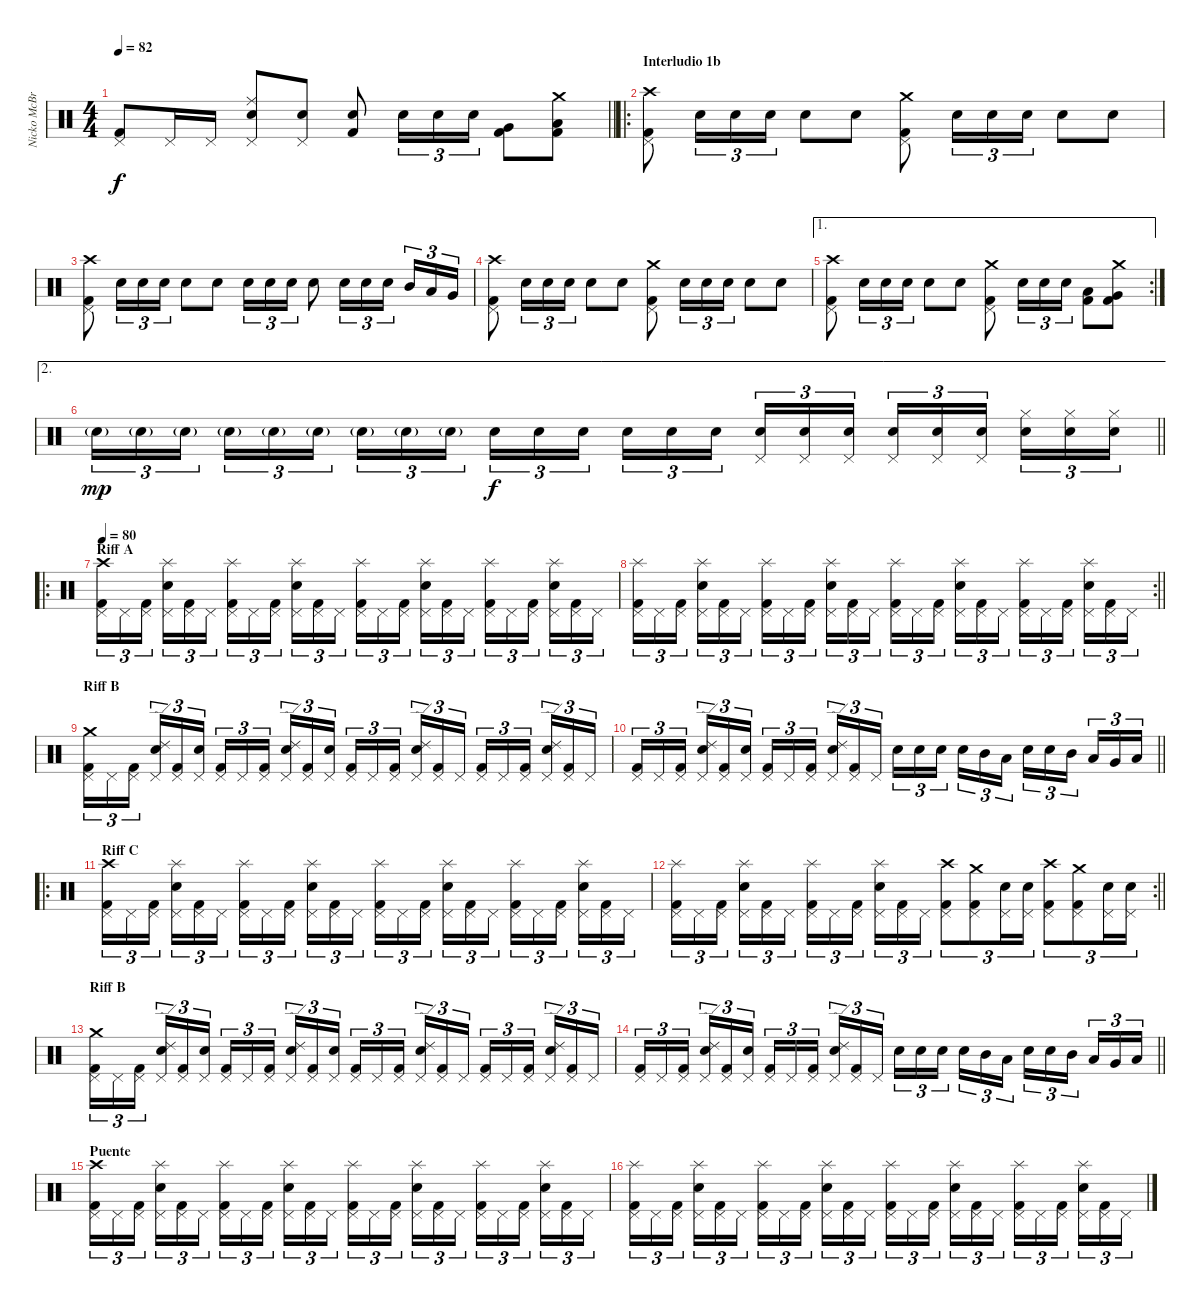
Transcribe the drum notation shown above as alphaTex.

\track ("Nicko McBrain" "Nicko McBr") {instrument percussion}
\staff {score}
\articulation defaults
\ts (4 4)
\tempo 82
\clef neutral
\barLineRight lightlight
\ks c
("Kick (hit) 2" "Pedal Hi-Hat (hit)").8{dy f} "Pedal Hi-Hat (hit)".16 "Pedal Hi-Hat (hit)".16 ("Snare (hit) 2" "Pedal Hi-Hat (hit)" "Ride (middle)").8 ("Snare (hit) 2" "Pedal Hi-Hat (hit)").8 ("Kick (hit) 2" "Snare (hit) 2").8 "Snare (hit) 2".16{tu (3 2)} "Snare (hit) 2".16{tu (3 2)} "Snare (hit) 2".16{tu (3 2)} ("Very Low Tom (hit)" "Kick (hit) 2").8 ("Low Floor Tom (hit)" "Kick (hit) 2" "Crash medium (hit)").8 |
\ro
\section ("" "Interludio 1b")
("Kick (hit) 2" "Pedal Hi-Hat (hit)" "Crash high (hit)").8 "Snare (hit) 2".16{tu (3 2)} "Snare (hit) 2".16{tu (3 2)} "Snare (hit) 2".16{tu (3 2)} "Snare (hit) 2".8 "Snare (hit) 2".8 ("Kick (hit) 2" "Pedal Hi-Hat (hit)" "Crash medium (hit)").8 "Snare (hit) 2".16{tu (3 2)} "Snare (hit) 2".16{tu (3 2)} "Snare (hit) 2".16{tu (3 2)} "Snare (hit) 2".8 "Snare (hit) 2".8 |
("Kick (hit) 2" "Pedal Hi-Hat (hit)" "Crash high (hit)").8 "Snare (hit) 2".16{tu (3 2)} "Snare (hit) 2".16{tu (3 2)} "Snare (hit) 2".16{tu (3 2)} "Snare (hit) 2".8 "Snare (hit) 2".8 "Snare (hit) 2".16{tu (3 2)} "Snare (hit) 2".16{tu (3 2)} "Snare (hit) 2".16{tu (3 2)} "Snare (hit) 2".8 "Snare (hit) 2".16{tu (3 2)} "Snare (hit) 2".16{tu (3 2)} "Snare (hit) 2".16{tu (3 2) beam splitsecondary} "Mid Tom (hit)".16{tu (3 2)} "Low Tom (hit)".16{tu (3 2)} "Very Low Tom (hit)".16{tu (3 2)} |
("Kick (hit) 2" "Pedal Hi-Hat (hit)" "Crash high (hit)").8 "Snare (hit) 2".16{tu (3 2)} "Snare (hit) 2".16{tu (3 2)} "Snare (hit) 2".16{tu (3 2)} "Snare (hit) 2".8 "Snare (hit) 2".8 ("Kick (hit) 2" "Pedal Hi-Hat (hit)" "Crash medium (hit)").8 "Snare (hit) 2".16{tu (3 2)} "Snare (hit) 2".16{tu (3 2)} "Snare (hit) 2".16{tu (3 2)} "Snare (hit) 2".8 "Snare (hit) 2".8 |
\ae 1
\rc 2
("Kick (hit) 2" "Pedal Hi-Hat (hit)" "Crash high (hit)").8 "Snare (hit) 2".16{tu (3 2)} "Snare (hit) 2".16{tu (3 2)} "Snare (hit) 2".16{tu (3 2)} "Snare (hit) 2".8 "Snare (hit) 2".8 ("Kick (hit) 2" "Pedal Hi-Hat (hit)" "Crash medium (hit)").8 "Snare (hit) 2".16{tu (3 2)} "Snare (hit) 2".16{tu (3 2)} "Snare (hit) 2".16{tu (3 2)} ("Low Tom (hit)" "Kick (hit) 2").8 ("Very Low Tom (hit)" "Kick (hit) 2" "Crash medium (hit)").8 |
\ae 2
\barLineRight lightlight "Snare (hit) 2"{g}.16{tu (3 2) dy mp} "Snare (hit) 2"{g}.16{tu (3 2)} "Snare (hit) 2"{g}.16{tu (3 2) beam splitsecondary} "Snare (hit) 2"{g}.16{tu (3 2)} "Snare (hit) 2"{g}.16{tu (3 2)} "Snare (hit) 2"{g}.16{tu (3 2)} "Snare (hit) 2"{g}.16{tu (3 2)} "Snare (hit) 2"{g}.16{tu (3 2)} "Snare (hit) 2"{g}.16{tu (3 2) beam splitsecondary} "Snare (hit) 2".16{tu (3 2) dy f} "Snare (hit) 2".16{tu (3 2)} "Snare (hit) 2".16{tu (3 2)} "Snare (hit) 2".16{tu (3 2)} "Snare (hit) 2".16{tu (3 2)} "Snare (hit) 2".16{tu (3 2) beam splitsecondary}
("Snare (hit) 2" "Pedal Hi-Hat (hit)").16{tu (3 2)} ("Snare (hit) 2" "Pedal Hi-Hat (hit)").16{tu (3 2)} ("Snare (hit) 2" "Pedal Hi-Hat (hit)").16{tu (3 2)} ("Snare (hit) 2" "Pedal Hi-Hat (hit)").16{tu (3 2)} ("Snare (hit) 2" "Pedal Hi-Hat (hit)").16{tu (3 2)} ("Snare (hit) 2" "Pedal Hi-Hat (hit)").16{tu (3 2) beam splitsecondary} ("Snare (hit) 2" "Hi-Hat (closed)").16{tu (3 2)} ("Snare (hit) 2" "Hi-Hat (closed)").16{tu (3 2)} ("Snare (hit) 2" "Hi-Hat (closed)").16{tu (3 2)} |
\ro
\section ("" "Riff A")
\tempo 80
("Kick (hit) 2" "Pedal Hi-Hat (hit)" "Crash high (hit)").16{tu (3 2)} "Pedal Hi-Hat (hit)".16{tu (3 2)} ("Kick (hit) 2" "Pedal Hi-Hat (hit)").16{tu (3 2) beam splitsecondary} ("Snare (hit) 2" "Pedal Hi-Hat (hit)" "Splash (hit)").16{tu (3 2)} ("Kick (hit) 2" "Pedal Hi-Hat (hit)").16{tu (3 2)} "Pedal Hi-Hat (hit)".16{tu (3 2)} ("Kick (hit) 2" "Pedal Hi-Hat (hit)" "Splash (hit)").16{tu (3 2)} "Pedal Hi-Hat (hit)".16{tu (3 2)} ("Kick (hit) 2" "Pedal Hi-Hat (hit)").16{tu (3 2) beam splitsecondary} ("Snare (hit) 2" "Pedal Hi-Hat (hit)" "Splash (hit)").16{tu (3 2)} ("Kick (hit) 2" "Pedal Hi-Hat (hit)").16{tu (3 2)} "Pedal Hi-Hat (hit)".16{tu (3 2)} ("Kick (hit) 2" "Pedal Hi-Hat (hit)" "Splash (hit)").16{tu (3 2)} "Pedal Hi-Hat (hit)".16{tu (3 2)} ("Kick (hit) 2" "Pedal Hi-Hat (hit)").16{tu (3 2) beam splitsecondary} ("Snare (hit) 2" "Pedal Hi-Hat (hit)" "Splash (hit)").16{tu (3 2)} ("Kick (hit) 2" "Pedal Hi-Hat (hit)").16{tu (3 2)} "Pedal Hi-Hat (hit)".16{tu (3 2)} ("Kick (hit) 2" "Pedal Hi-Hat (hit)" "Splash (hit)").16{tu (3 2)} "Pedal Hi-Hat (hit)".16{tu (3 2)} ("Kick (hit) 2" "Pedal Hi-Hat (hit)").16{tu (3 2) beam splitsecondary} ("Snare (hit) 2" "Pedal Hi-Hat (hit)" "Splash (hit)").16{tu (3 2)} ("Kick (hit) 2" "Pedal Hi-Hat (hit)").16{tu (3 2)} "Pedal Hi-Hat (hit)".16{tu (3 2)} |
\rc 2
\barLineRight lightlight
("Kick (hit) 2" "Pedal Hi-Hat (hit)" "Splash (hit)").16{tu (3 2)} "Pedal Hi-Hat (hit)".16{tu (3 2)} ("Kick (hit) 2" "Pedal Hi-Hat (hit)").16{tu (3 2) beam splitsecondary} ("Snare (hit) 2" "Pedal Hi-Hat (hit)" "Splash (hit)").16{tu (3 2)} ("Kick (hit) 2" "Pedal Hi-Hat (hit)").16{tu (3 2)} "Pedal Hi-Hat (hit)".16{tu (3 2)} ("Kick (hit) 2" "Pedal Hi-Hat (hit)" "Splash (hit)").16{tu (3 2)} "Pedal Hi-Hat (hit)".16{tu (3 2)} ("Kick (hit) 2" "Pedal Hi-Hat (hit)").16{tu (3 2) beam splitsecondary} ("Snare (hit) 2" "Pedal Hi-Hat (hit)" "Splash (hit)").16{tu (3 2)} ("Kick (hit) 2" "Pedal Hi-Hat (hit)").16{tu (3 2)} "Pedal Hi-Hat (hit)".16{tu (3 2)} ("Kick (hit) 2" "Pedal Hi-Hat (hit)" "Splash (hit)").16{tu (3 2)} "Pedal Hi-Hat (hit)".16{tu (3 2)} ("Kick (hit) 2" "Pedal Hi-Hat (hit)").16{tu (3 2) beam splitsecondary} ("Snare (hit) 2" "Pedal Hi-Hat (hit)" "Splash (hit)").16{tu (3 2)} ("Kick (hit) 2" "Pedal Hi-Hat (hit)").16{tu (3 2)} "Pedal Hi-Hat (hit)".16{tu (3 2)} ("Kick (hit) 2" "Pedal Hi-Hat (hit)" "Splash (hit)").16{tu (3 2)} "Pedal Hi-Hat (hit)".16{tu (3 2)} ("Kick (hit) 2" "Pedal Hi-Hat (hit)").16{tu (3 2) beam splitsecondary} ("Snare (hit) 2" "Pedal Hi-Hat (hit)" "Splash (hit)").16{tu (3 2)} ("Kick (hit) 2" "Pedal Hi-Hat (hit)").16{tu (3 2)} "Pedal Hi-Hat (hit)".16{tu (3 2)} |
\section ("" "Riff B")
("Kick (hit) 2" "Pedal Hi-Hat (hit)" "Crash medium (hit)").16{tu (3 2)} "Pedal Hi-Hat (hit)".16{tu (3 2)} ("Kick (hit) 2" "Pedal Hi-Hat (hit)").16{tu (3 2) beam splitsecondary} ("Snare (hit) 2" "Pedal Hi-Hat (hit)" "Ride (edge) 2").16{tu (3 2)} ("Kick (hit) 2" "Pedal Hi-Hat (hit)").16{tu (3 2)} ("Snare (hit) 2" "Pedal Hi-Hat (hit)").16{tu (3 2)} ("Kick (hit) 2" "Pedal Hi-Hat (hit)").16{tu (3 2)} "Pedal Hi-Hat (hit)".16{tu (3 2)} ("Kick (hit) 2" "Pedal Hi-Hat (hit)").16{tu (3 2) beam splitsecondary} ("Snare (hit) 2" "Pedal Hi-Hat (hit)" "Ride (edge) 2").16{tu (3 2)} ("Kick (hit) 2" "Pedal Hi-Hat (hit)").16{tu (3 2)} ("Snare (hit) 2" "Pedal Hi-Hat (hit)").16{tu (3 2)} ("Kick (hit) 2" "Pedal Hi-Hat (hit)").16{tu (3 2)} "Pedal Hi-Hat (hit)".16{tu (3 2)} ("Kick (hit) 2" "Pedal Hi-Hat (hit)").16{tu (3 2) beam splitsecondary} ("Snare (hit) 2" "Pedal Hi-Hat (hit)" "Ride (edge) 2").16{tu (3 2)} ("Kick (hit) 2" "Pedal Hi-Hat (hit)").16{tu (3 2)} "Pedal Hi-Hat (hit)".16{tu (3 2)} ("Kick (hit) 2" "Pedal Hi-Hat (hit)").16{tu (3 2)} "Pedal Hi-Hat (hit)".16{tu (3 2)} ("Kick (hit) 2" "Pedal Hi-Hat (hit)").16{tu (3 2) beam splitsecondary} ("Snare (hit) 2" "Pedal Hi-Hat (hit)" "Ride (edge) 2").16{tu (3 2)} ("Kick (hit) 2" "Pedal Hi-Hat (hit)").16{tu (3 2)} "Pedal Hi-Hat (hit)".16{tu (3 2)} |
\barLineRight lightlight
("Kick (hit) 2" "Pedal Hi-Hat (hit)").16{tu (3 2)} "Pedal Hi-Hat (hit)".16{tu (3 2)} ("Kick (hit) 2" "Pedal Hi-Hat (hit)").16{tu (3 2) beam splitsecondary} ("Snare (hit) 2" "Pedal Hi-Hat (hit)" "Ride (edge) 2").16{tu (3 2)} ("Kick (hit) 2" "Pedal Hi-Hat (hit)").16{tu (3 2)} ("Snare (hit) 2" "Pedal Hi-Hat (hit)").16{tu (3 2)} ("Kick (hit) 2" "Pedal Hi-Hat (hit)").16{tu (3 2)} "Pedal Hi-Hat (hit)".16{tu (3 2)} ("Kick (hit) 2" "Pedal Hi-Hat (hit)").16{tu (3 2) beam splitsecondary} ("Snare (hit) 2" "Pedal Hi-Hat (hit)" "Ride (edge) 2").16{tu (3 2)} ("Kick (hit) 2" "Pedal Hi-Hat (hit)").16{tu (3 2)} "Pedal Hi-Hat (hit)".16{tu (3 2)} "Snare (hit) 2".16{tu (3 2)} "Snare (hit) 2".16{tu (3 2)} "Snare (hit) 2".16{tu (3 2) beam splitsecondary} "Snare (hit) 2".16{tu (3 2)} "Mid Tom (hit)".16{tu (3 2)} "Low Tom (hit)".16{tu (3 2)} "Snare (hit) 2".16{tu (3 2)} "Snare (hit) 2".16{tu (3 2)} "Mid Tom (hit)".16{tu (3 2) beam splitsecondary} "Low Tom (hit)".16{tu (3 2)} "Very Low Tom (hit)".16{tu (3 2)} "Low Floor Tom (hit)".16{tu (3 2)} |
\ro
\section ("" "Riff C")
("Kick (hit) 2" "Pedal Hi-Hat (hit)" "Crash high (hit)").16{tu (3 2)} "Pedal Hi-Hat (hit)".16{tu (3 2)} ("Kick (hit) 2" "Pedal Hi-Hat (hit)").16{tu (3 2) beam splitsecondary} ("Snare (hit) 2" "Pedal Hi-Hat (hit)" "Splash (hit)").16{tu (3 2)} ("Kick (hit) 2" "Pedal Hi-Hat (hit)").16{tu (3 2)} "Pedal Hi-Hat (hit)".16{tu (3 2)} ("Kick (hit) 2" "Pedal Hi-Hat (hit)" "Splash (hit)").16{tu (3 2)} "Pedal Hi-Hat (hit)".16{tu (3 2)} ("Kick (hit) 2" "Pedal Hi-Hat (hit)").16{tu (3 2) beam splitsecondary} ("Snare (hit) 2" "Pedal Hi-Hat (hit)" "Splash (hit)").16{tu (3 2)} ("Kick (hit) 2" "Pedal Hi-Hat (hit)").16{tu (3 2)} "Pedal Hi-Hat (hit)".16{tu (3 2)} ("Kick (hit) 2" "Pedal Hi-Hat (hit)" "Splash (hit)").16{tu (3 2)} "Pedal Hi-Hat (hit)".16{tu (3 2)} ("Kick (hit) 2" "Pedal Hi-Hat (hit)").16{tu (3 2) beam splitsecondary} ("Snare (hit) 2" "Pedal Hi-Hat (hit)" "Splash (hit)").16{tu (3 2)} ("Kick (hit) 2" "Pedal Hi-Hat (hit)").16{tu (3 2)} "Pedal Hi-Hat (hit)".16{tu (3 2)} ("Kick (hit) 2" "Pedal Hi-Hat (hit)" "Splash (hit)").16{tu (3 2)} "Pedal Hi-Hat (hit)".16{tu (3 2)} ("Kick (hit) 2" "Pedal Hi-Hat (hit)").16{tu (3 2) beam splitsecondary} ("Snare (hit) 2" "Pedal Hi-Hat (hit)" "Splash (hit)").16{tu (3 2)} ("Kick (hit) 2" "Pedal Hi-Hat (hit)").16{tu (3 2)} "Pedal Hi-Hat (hit)".16{tu (3 2)} |
\rc 2
\barLineRight lightlight
("Kick (hit) 2" "Pedal Hi-Hat (hit)" "Splash (hit)").16{tu (3 2)} "Pedal Hi-Hat (hit)".16{tu (3 2)} ("Kick (hit) 2" "Pedal Hi-Hat (hit)").16{tu (3 2) beam splitsecondary} ("Snare (hit) 2" "Pedal Hi-Hat (hit)" "Splash (hit)").16{tu (3 2)} ("Kick (hit) 2" "Pedal Hi-Hat (hit)").16{tu (3 2)} "Pedal Hi-Hat (hit)".16{tu (3 2)} ("Kick (hit) 2" "Pedal Hi-Hat (hit)" "Splash (hit)").16{tu (3 2)} "Pedal Hi-Hat (hit)".16{tu (3 2)} ("Kick (hit) 2" "Pedal Hi-Hat (hit)").16{tu (3 2) beam splitsecondary} ("Snare (hit) 2" "Pedal Hi-Hat (hit)" "Splash (hit)").16{tu (3 2)} ("Kick (hit) 2" "Pedal Hi-Hat (hit)").16{tu (3 2)} "Pedal Hi-Hat (hit)".16{tu (3 2)} ("Kick (hit) 2" "Pedal Hi-Hat (hit)" "Crash high (hit)").8{tu (3 2)} ("Kick (hit) 2" "Pedal Hi-Hat (hit)" "Crash medium (hit)").8{tu (3 2)} ("Snare (hit) 2" "Pedal Hi-Hat (hit)").16{tu (3 2)} ("Snare (hit) 2" "Pedal Hi-Hat (hit)").16{tu (3 2)} ("Kick (hit) 2" "Pedal Hi-Hat (hit)" "Crash high (hit)").8{tu (3 2)} ("Kick (hit) 2" "Pedal Hi-Hat (hit)" "Crash medium (hit)").8{tu (3 2)} ("Snare (hit) 2" "Pedal Hi-Hat (hit)").16{tu (3 2)} ("Snare (hit) 2" "Pedal Hi-Hat (hit)").16{tu (3 2)} |
\section ("" "Riff B")
("Kick (hit) 2" "Pedal Hi-Hat (hit)" "Crash medium (hit)").16{tu (3 2)} "Pedal Hi-Hat (hit)".16{tu (3 2)} ("Kick (hit) 2" "Pedal Hi-Hat (hit)").16{tu (3 2) beam splitsecondary} ("Snare (hit) 2" "Pedal Hi-Hat (hit)" "Ride (edge) 2").16{tu (3 2)} ("Kick (hit) 2" "Pedal Hi-Hat (hit)").16{tu (3 2)} ("Snare (hit) 2" "Pedal Hi-Hat (hit)").16{tu (3 2)} ("Kick (hit) 2" "Pedal Hi-Hat (hit)").16{tu (3 2)} "Pedal Hi-Hat (hit)".16{tu (3 2)} ("Kick (hit) 2" "Pedal Hi-Hat (hit)").16{tu (3 2) beam splitsecondary} ("Snare (hit) 2" "Pedal Hi-Hat (hit)" "Ride (edge) 2").16{tu (3 2)} ("Kick (hit) 2" "Pedal Hi-Hat (hit)").16{tu (3 2)} ("Snare (hit) 2" "Pedal Hi-Hat (hit)").16{tu (3 2)} ("Kick (hit) 2" "Pedal Hi-Hat (hit)").16{tu (3 2)} "Pedal Hi-Hat (hit)".16{tu (3 2)} ("Kick (hit) 2" "Pedal Hi-Hat (hit)").16{tu (3 2) beam splitsecondary} ("Snare (hit) 2" "Pedal Hi-Hat (hit)" "Ride (edge) 2").16{tu (3 2)} ("Kick (hit) 2" "Pedal Hi-Hat (hit)").16{tu (3 2)} "Pedal Hi-Hat (hit)".16{tu (3 2)} ("Kick (hit) 2" "Pedal Hi-Hat (hit)").16{tu (3 2)} "Pedal Hi-Hat (hit)".16{tu (3 2)} ("Kick (hit) 2" "Pedal Hi-Hat (hit)").16{tu (3 2) beam splitsecondary} ("Snare (hit) 2" "Pedal Hi-Hat (hit)" "Ride (edge) 2").16{tu (3 2)} ("Kick (hit) 2" "Pedal Hi-Hat (hit)").16{tu (3 2)} "Pedal Hi-Hat (hit)".16{tu (3 2)} |
\barLineRight lightlight
("Kick (hit) 2" "Pedal Hi-Hat (hit)").16{tu (3 2)} "Pedal Hi-Hat (hit)".16{tu (3 2)} ("Kick (hit) 2" "Pedal Hi-Hat (hit)").16{tu (3 2) beam splitsecondary} ("Snare (hit) 2" "Pedal Hi-Hat (hit)" "Ride (edge) 2").16{tu (3 2)} ("Kick (hit) 2" "Pedal Hi-Hat (hit)").16{tu (3 2)} ("Snare (hit) 2" "Pedal Hi-Hat (hit)").16{tu (3 2)} ("Kick (hit) 2" "Pedal Hi-Hat (hit)").16{tu (3 2)} "Pedal Hi-Hat (hit)".16{tu (3 2)} ("Kick (hit) 2" "Pedal Hi-Hat (hit)").16{tu (3 2) beam splitsecondary} ("Snare (hit) 2" "Pedal Hi-Hat (hit)" "Ride (edge) 2").16{tu (3 2)} ("Kick (hit) 2" "Pedal Hi-Hat (hit)").16{tu (3 2)} "Pedal Hi-Hat (hit)".16{tu (3 2)} "Snare (hit) 2".16{tu (3 2)} "Snare (hit) 2".16{tu (3 2)} "Snare (hit) 2".16{tu (3 2) beam splitsecondary} "Snare (hit) 2".16{tu (3 2)} "Mid Tom (hit)".16{tu (3 2)} "Low Tom (hit)".16{tu (3 2)} "Snare (hit) 2".16{tu (3 2)} "Snare (hit) 2".16{tu (3 2)} "Mid Tom (hit)".16{tu (3 2) beam splitsecondary} "Low Tom (hit)".16{tu (3 2)} "Very Low Tom (hit)".16{tu (3 2)} "Low Floor Tom (hit)".16{tu (3 2)} |
\section ("" "Puente")
("Kick (hit) 2" "Pedal Hi-Hat (hit)" "Crash high (hit)").16{tu (3 2)} "Pedal Hi-Hat (hit)".16{tu (3 2)} ("Kick (hit) 2" "Pedal Hi-Hat (hit)").16{tu (3 2) beam splitsecondary} ("Snare (hit) 2" "Pedal Hi-Hat (hit)" "Splash (hit)").16{tu (3 2)} ("Kick (hit) 2" "Pedal Hi-Hat (hit)").16{tu (3 2)} "Pedal Hi-Hat (hit)".16{tu (3 2)} ("Kick (hit) 2" "Pedal Hi-Hat (hit)" "Splash (hit)").16{tu (3 2)} "Pedal Hi-Hat (hit)".16{tu (3 2)} ("Kick (hit) 2" "Pedal Hi-Hat (hit)").16{tu (3 2) beam splitsecondary} ("Snare (hit) 2" "Pedal Hi-Hat (hit)" "Splash (hit)").16{tu (3 2)} ("Kick (hit) 2" "Pedal Hi-Hat (hit)").16{tu (3 2)} "Pedal Hi-Hat (hit)".16{tu (3 2)} ("Kick (hit) 2" "Pedal Hi-Hat (hit)" "Splash (hit)").16{tu (3 2)} "Pedal Hi-Hat (hit)".16{tu (3 2)} ("Kick (hit) 2" "Pedal Hi-Hat (hit)").16{tu (3 2) beam splitsecondary} ("Snare (hit) 2" "Pedal Hi-Hat (hit)" "Splash (hit)").16{tu (3 2)} ("Kick (hit) 2" "Pedal Hi-Hat (hit)").16{tu (3 2)} "Pedal Hi-Hat (hit)".16{tu (3 2)} ("Kick (hit) 2" "Pedal Hi-Hat (hit)" "Splash (hit)").16{tu (3 2)} "Pedal Hi-Hat (hit)".16{tu (3 2)} ("Kick (hit) 2" "Pedal Hi-Hat (hit)").16{tu (3 2) beam splitsecondary} ("Snare (hit) 2" "Pedal Hi-Hat (hit)" "Splash (hit)").16{tu (3 2)} ("Kick (hit) 2" "Pedal Hi-Hat (hit)").16{tu (3 2)} "Pedal Hi-Hat (hit)".16{tu (3 2)} |
("Kick (hit) 2" "Pedal Hi-Hat (hit)" "Splash (hit)").16{tu (3 2)} "Pedal Hi-Hat (hit)".16{tu (3 2)} ("Kick (hit) 2" "Pedal Hi-Hat (hit)").16{tu (3 2) beam splitsecondary} ("Snare (hit) 2" "Pedal Hi-Hat (hit)" "Splash (hit)").16{tu (3 2)} ("Kick (hit) 2" "Pedal Hi-Hat (hit)").16{tu (3 2)} "Pedal Hi-Hat (hit)".16{tu (3 2)} ("Kick (hit) 2" "Pedal Hi-Hat (hit)" "Splash (hit)").16{tu (3 2)} "Pedal Hi-Hat (hit)".16{tu (3 2)} ("Kick (hit) 2" "Pedal Hi-Hat (hit)").16{tu (3 2) beam splitsecondary} ("Snare (hit) 2" "Pedal Hi-Hat (hit)" "Splash (hit)").16{tu (3 2)} ("Kick (hit) 2" "Pedal Hi-Hat (hit)").16{tu (3 2)} "Pedal Hi-Hat (hit)".16{tu (3 2)} ("Kick (hit) 2" "Pedal Hi-Hat (hit)" "Splash (hit)").16{tu (3 2)} "Pedal Hi-Hat (hit)".16{tu (3 2)} ("Kick (hit) 2" "Pedal Hi-Hat (hit)").16{tu (3 2) beam splitsecondary} ("Snare (hit) 2" "Pedal Hi-Hat (hit)" "Splash (hit)").16{tu (3 2)} ("Kick (hit) 2" "Pedal Hi-Hat (hit)").16{tu (3 2)} "Pedal Hi-Hat (hit)".16{tu (3 2)} ("Kick (hit) 2" "Pedal Hi-Hat (hit)" "Splash (hit)").16{tu (3 2)} "Pedal Hi-Hat (hit)".16{tu (3 2)} ("Kick (hit) 2" "Pedal Hi-Hat (hit)").16{tu (3 2) beam splitsecondary} ("Snare (hit) 2" "Pedal Hi-Hat (hit)" "Splash (hit)").16{tu (3 2)} ("Kick (hit) 2" "Pedal Hi-Hat (hit)").16{tu (3 2)} "Pedal Hi-Hat (hit)".16{tu (3 2)}
